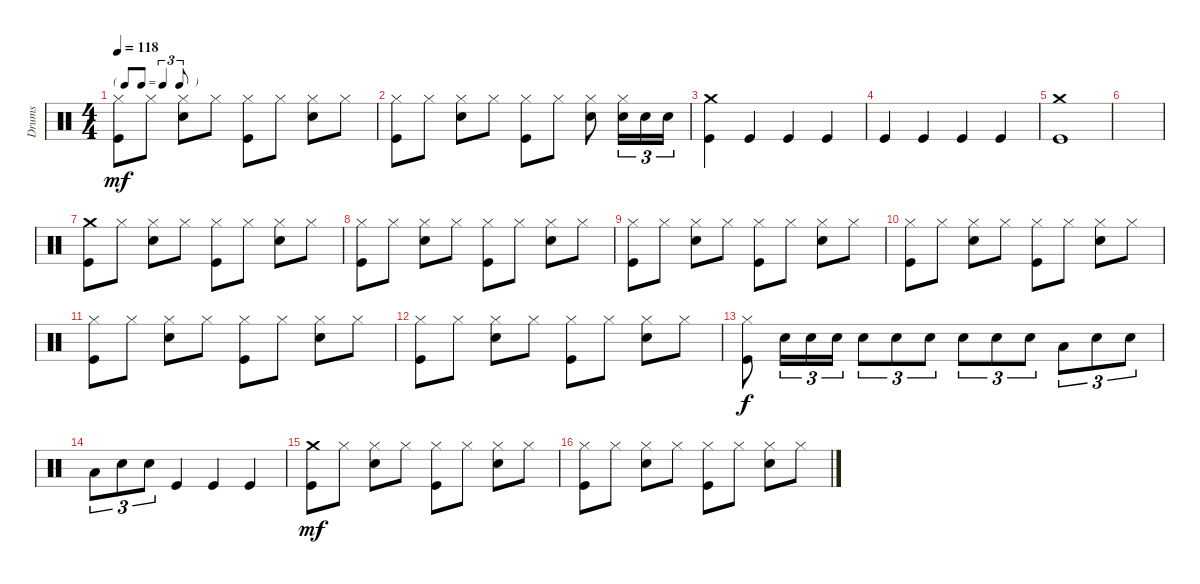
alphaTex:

\track ("Drums" "Drums") {instrument percussion}
\staff {score}
\articulation defaults
\ts (4 4)
\tf triplet8th
\tempo 118
\clef neutral
\ks c
("Hi-Hat (closed)" "Kick (hit)").8{dy mf} "Hi-Hat (closed)".8 ("Hi-Hat (closed)" "Snare (hit) 2").8 "Hi-Hat (closed)".8 ("Hi-Hat (closed)" "Kick (hit)").8 "Hi-Hat (closed)".8 ("Hi-Hat (closed)" "Snare (hit) 2").8 "Hi-Hat (closed)".8 |
("Hi-Hat (closed)" "Kick (hit)").8 "Hi-Hat (closed)".8 ("Hi-Hat (closed)" "Snare (hit) 2").8 "Hi-Hat (closed)".8 ("Hi-Hat (closed)" "Kick (hit)").8 "Hi-Hat (closed)".8 ("Hi-Hat (closed)" "Snare (hit) 2").8 ("Hi-Hat (closed)" "Snare (hit) 2").16{tu (3 2)} "Snare (hit) 2".16{tu (3 2)} "Snare (hit) 2".16{tu (3 2)} |
("Crash medium (hit)" "Kick (hit)").4 "Kick (hit)".4 "Kick (hit)".4 "Kick (hit)".4 |
"Kick (hit)".4 "Kick (hit)".4 "Kick (hit)".4 "Kick (hit)".4 |
("Crash medium (hit)" "Kick (hit)").1 |
|
("Crash medium (hit)" "Kick (hit)").8 "Hi-Hat (closed)".8 ("Hi-Hat (closed)" "Snare (hit) 2").8 "Hi-Hat (closed)".8 ("Hi-Hat (closed)" "Kick (hit)").8 "Hi-Hat (closed)".8 ("Hi-Hat (closed)" "Snare (hit) 2").8 "Hi-Hat (closed)".8 |
("Hi-Hat (closed)" "Kick (hit)").8 "Hi-Hat (closed)".8 ("Hi-Hat (closed)" "Snare (hit) 2").8 "Hi-Hat (closed)".8 ("Hi-Hat (closed)" "Kick (hit)").8 "Hi-Hat (closed)".8 ("Hi-Hat (closed)" "Snare (hit) 2").8 "Hi-Hat (closed)".8 |
("Hi-Hat (closed)" "Kick (hit)").8 "Hi-Hat (closed)".8 ("Hi-Hat (closed)" "Snare (hit) 2").8 "Hi-Hat (closed)".8 ("Hi-Hat (closed)" "Kick (hit)").8 "Hi-Hat (closed)".8 ("Hi-Hat (closed)" "Snare (hit) 2").8 "Hi-Hat (closed)".8 |
("Hi-Hat (closed)" "Kick (hit)").8 "Hi-Hat (closed)".8 ("Hi-Hat (closed)" "Snare (hit) 2").8 "Hi-Hat (closed)".8 ("Hi-Hat (closed)" "Kick (hit)").8 "Hi-Hat (closed)".8 ("Hi-Hat (closed)" "Snare (hit) 2").8 "Hi-Hat (closed)".8 |
("Hi-Hat (closed)" "Kick (hit)").8 "Hi-Hat (closed)".8 ("Hi-Hat (closed)" "Snare (hit) 2").8 "Hi-Hat (closed)".8 ("Hi-Hat (closed)" "Kick (hit)").8 "Hi-Hat (closed)".8 ("Hi-Hat (closed)" "Snare (hit) 2").8 "Hi-Hat (closed)".8 |
("Hi-Hat (closed)" "Kick (hit)").8 "Hi-Hat (closed)".8 ("Hi-Hat (closed)" "Snare (hit) 2").8 "Hi-Hat (closed)".8 ("Hi-Hat (closed)" "Kick (hit)").8 "Hi-Hat (closed)".8 ("Hi-Hat (closed)" "Snare (hit) 2").8 "Hi-Hat (closed)".8 |
("Hi-Hat (closed)" "Kick (hit)").8{dy f} "Snare (hit) 2".16{tu (3 2)} "Snare (hit) 2".16{tu (3 2)} "Snare (hit) 2".16{tu (3 2)} "Snare (hit) 2".8{tu (3 2)} "Snare (hit) 2".8{tu (3 2)} "Snare (hit) 2".8{tu (3 2)} "Snare (hit) 2".8{tu (3 2)} "Snare (hit) 2".8{tu (3 2)} "Snare (hit) 2".8{tu (3 2)} "Low Tom (hit)".8{tu (3 2)} "Snare (hit) 2".8{tu (3 2)} "Snare (hit) 2".8{tu (3 2)} |
"Low Tom (hit)".8{tu (3 2)} "Snare (hit) 2".8{tu (3 2)} "Snare (hit) 2".8{tu (3 2)} "Kick (hit)".4 "Kick (hit)".4 "Kick (hit)".4 |
("Kick (hit)" "Crash medium (hit)").8{dy mf} "Hi-Hat (closed)".8 ("Hi-Hat (closed)" "Snare (hit) 2").8 "Hi-Hat (closed)".8 ("Hi-Hat (closed)" "Kick (hit)").8 "Hi-Hat (closed)".8 ("Hi-Hat (closed)" "Snare (hit) 2").8 "Hi-Hat (closed)".8 |
("Hi-Hat (closed)" "Kick (hit)").8 "Hi-Hat (closed)".8 ("Hi-Hat (closed)" "Snare (hit) 2").8 "Hi-Hat (closed)".8 ("Hi-Hat (closed)" "Kick (hit)").8 "Hi-Hat (closed)".8 ("Hi-Hat (closed)" "Snare (hit) 2").8 "Hi-Hat (closed)".8
